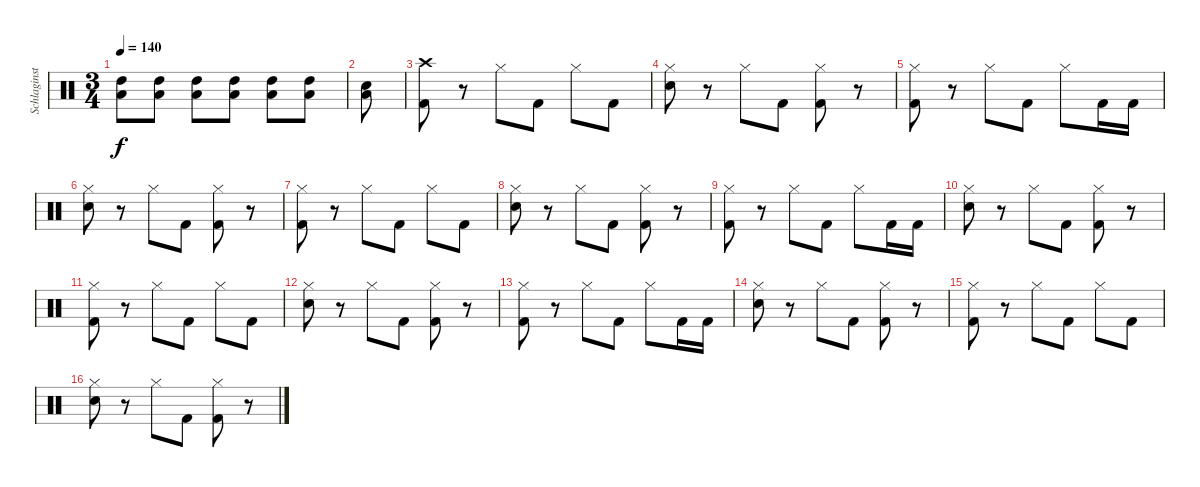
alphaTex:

\track ("Schlaginstrumente - Auswahl" "Schlaginst") {instrument percussion}
\staff {score}
\articulation defaults
\ts (3 4)
\tempo 140
\clef neutral
\ks c
("High Tom (hit)" "Low Tom (hit)").8{dy f} ("High Tom (hit)" "Low Tom (hit)").8 ("High Tom (hit)" "Low Tom (hit)").8 ("High Tom (hit)" "Low Tom (hit)").8 ("High Tom (hit)" "Low Tom (hit)").8 ("High Tom (hit)" "Low Tom (hit)").8 |
("Electric Snare (hit)" "Low Tom (hit)").8 |
("Crash high (hit)" "Kick (hit) 2").8 r.8 "Hi-Hat (closed)".8 "Kick (hit) 2".8 "Hi-Hat (closed)".8 "Kick (hit) 2".8 |
("Hi-Hat (closed)" "Electric Snare (hit)").8 r.8 "Hi-Hat (closed)".8 "Kick (hit) 2".8 ("Hi-Hat (closed)" "Kick (hit) 2").8 r.8 |
("Hi-Hat (closed)" "Kick (hit) 2").8 r.8 "Hi-Hat (closed)".8 "Kick (hit) 2".8 "Hi-Hat (closed)".8 "Kick (hit) 2".16 "Kick (hit) 2".16 |
("Hi-Hat (closed)" "Electric Snare (hit)").8 r.8 "Hi-Hat (closed)".8 "Kick (hit) 2".8 ("Hi-Hat (closed)" "Kick (hit) 2").8 r.8 |
("Hi-Hat (closed)" "Kick (hit) 2").8 r.8 "Hi-Hat (closed)".8 "Kick (hit) 2".8 "Hi-Hat (closed)".8 "Kick (hit) 2".8 |
("Hi-Hat (closed)" "Electric Snare (hit)").8 r.8 "Hi-Hat (closed)".8 "Kick (hit) 2".8 ("Hi-Hat (closed)" "Kick (hit) 2").8 r.8 |
("Hi-Hat (closed)" "Kick (hit) 2").8 r.8 "Hi-Hat (closed)".8 "Kick (hit) 2".8 "Hi-Hat (closed)".8 "Kick (hit) 2".16 "Kick (hit) 2".16 |
("Hi-Hat (closed)" "Electric Snare (hit)").8 r.8 "Hi-Hat (closed)".8 "Kick (hit) 2".8 ("Hi-Hat (closed)" "Kick (hit) 2").8 r.8 |
("Hi-Hat (closed)" "Kick (hit) 2").8 r.8 "Hi-Hat (closed)".8 "Kick (hit) 2".8 "Hi-Hat (closed)".8 "Kick (hit) 2".8 |
("Hi-Hat (closed)" "Electric Snare (hit)").8 r.8 "Hi-Hat (closed)".8 "Kick (hit) 2".8 ("Hi-Hat (closed)" "Kick (hit) 2").8 r.8 |
("Hi-Hat (closed)" "Kick (hit) 2").8 r.8 "Hi-Hat (closed)".8 "Kick (hit) 2".8 "Hi-Hat (closed)".8 "Kick (hit) 2".16 "Kick (hit) 2".16 |
("Hi-Hat (closed)" "Electric Snare (hit)").8 r.8 "Hi-Hat (closed)".8 "Kick (hit) 2".8 ("Hi-Hat (closed)" "Kick (hit) 2").8 r.8 |
("Hi-Hat (closed)" "Kick (hit) 2").8 r.8 "Hi-Hat (closed)".8 "Kick (hit) 2".8 "Hi-Hat (closed)".8 "Kick (hit) 2".8 |
("Hi-Hat (closed)" "Electric Snare (hit)").8 r.8 "Hi-Hat (closed)".8 "Kick (hit) 2".8 ("Hi-Hat (closed)" "Kick (hit) 2").8 r.8
